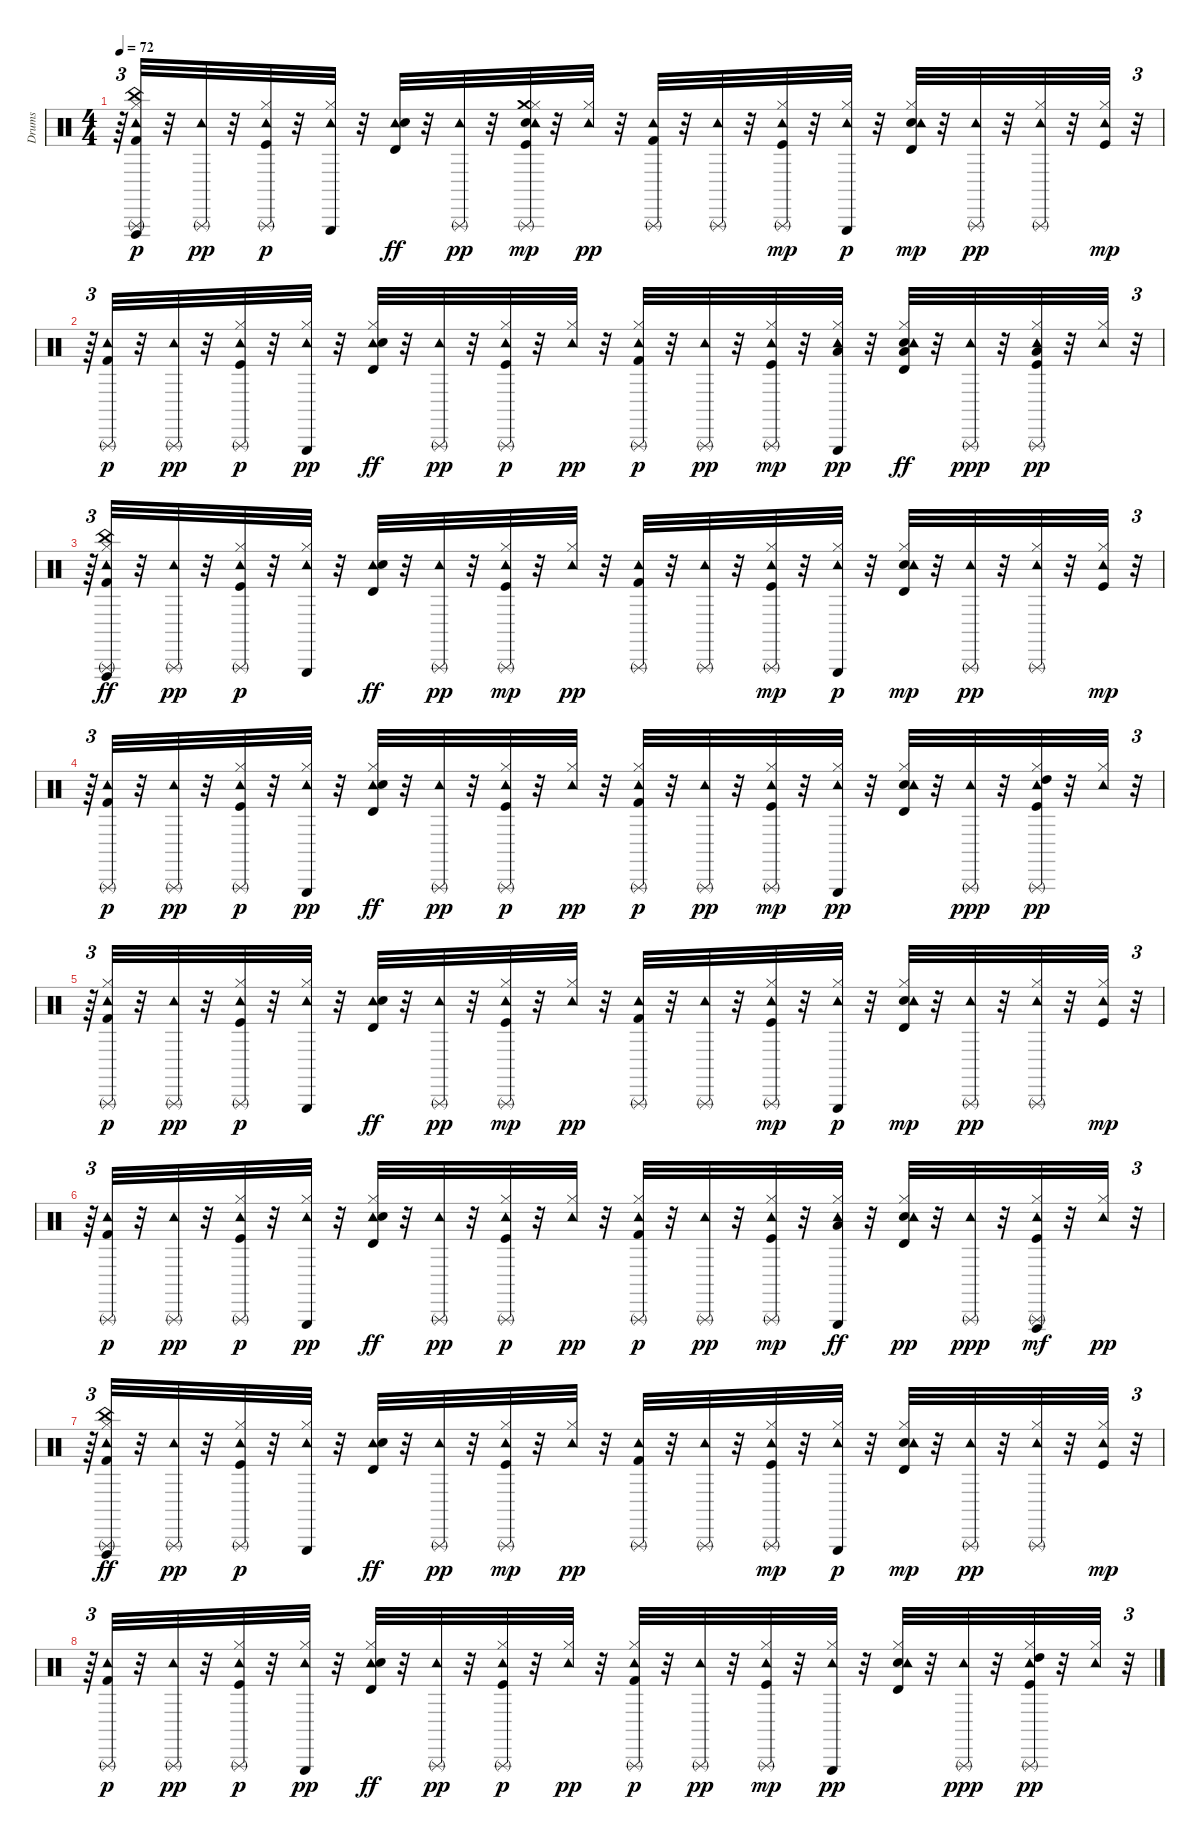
\track ("Drums" "Drums") {instrument percussion}
\staff {score}
\articulation defaults
\ts (4 4)
\tempo 72
\clef neutral
\ks c
r.64{tu (3 2) dy pp} ("Hi-Hat (closed)" "China (hit)" "Tambourine (hit)" "Vibraslap (hit)" "Triangle (rnute)" "Kick (hit) 2").32{dy p} r.32 ("Triangle (rnute)" "Tambourine (hit)").32{dy pp} r.32 ("Kick (hit)" "Hi-Hat (closed)" "Tambourine (hit)" "Triangle (rnute)").32{dy p} r.32 ("Hi-Hat (closed)" "Tambourine (hit)" "Triangle (hit)").32 r.32 ("Tambourine (hit)" "Electric Snare (hit)" "Timbale high (hit)").32{dy ff} r.32 ("Triangle (rnute)" "Tambourine (hit)").32{dy pp} r.32 ("Crash medium (hit)" "Kick (hit)" "Hi-Hat (closed)" "Snare (hit) 2" "Tambourine (hit)" "Triangle (rnute)").32{dy mp} r.32 ("Hi-Hat (closed)" "Tambourine (hit)").32{dy pp} r.32 ("Tambourine (hit)" "Kick (hit) 2" "Triangle (rnute)").32 r.32 ("Triangle (rnute)" "Tambourine (hit)").32 r.32 ("Hi-Hat (closed)" "Triangle (rnute)" "Tambourine (hit)" "Kick (hit)").32{dy mp} r.32 ("Hi-Hat (closed)" "Tambourine (hit)" "Triangle (hit)").32{dy p} r.32 ("Timbale high (hit)" "Electric Snare (hit)" "Tambourine (hit)" "Hi-Hat (closed)").32{dy mp} r.32 ("Tambourine (hit)" "Triangle (rnute)").32{dy pp} r.32 ("Tambourine (hit)" "Hi-Hat (closed)" "Triangle (rnute)").32 r.32 ("Kick (hit)" "Tambourine (hit)" "Hi-Hat (closed)").32{dy mp} r.32{tu (3 2)} |
r.64{tu (3 2)} ("Kick (hit) 2" "Tambourine (hit)" "Triangle (rnute)").32{dy p} r.32 ("Triangle (rnute)" "Tambourine (hit)").32{dy pp} r.32 ("Kick (hit)" "Hi-Hat (closed)" "Triangle (rnute)" "Tambourine (hit)").32{dy p} r.32 ("Hi-Hat (closed)" "Triangle (hit)" "Tambourine (hit)").32{dy pp} r.32 ("Hi-Hat (closed)" "Tambourine (hit)" "Electric Snare (hit)" "Timbale high (hit)").32{dy ff} r.32 ("Tambourine (hit)" "Triangle (rnute)").32{dy pp} r.32 ("Kick (hit)" "Hi-Hat (closed)" "Tambourine (hit)" "Triangle (rnute)").32{dy p} r.32 ("Hi-Hat (closed)" "Tambourine (hit)").32{dy pp} r.32 ("Hi-Hat (closed)" "Triangle (rnute)" "Tambourine (hit)" "Kick (hit) 2").32{dy p} r.32 ("Triangle (rnute)" "Tambourine (hit)").32{dy pp} r.32 ("Hi-Hat (closed)" "Triangle (rnute)" "Tambourine (hit)" "Kick (hit)").32{dy mp} r.32 ("Hi-Hat (closed)" "Low Tom (hit)" "Triangle (hit)" "Tambourine (hit)").32{dy pp} r.32 ("Electric Snare (hit)" "Timbale high (hit)" "Hi-Hat (closed)" "Tambourine (hit)" "Low Tom (hit)").32{dy ff} r.32 ("Triangle (rnute)" "Tambourine (hit)").32{dy ppp} r.32 ("Kick (hit)" "Hi-Hat (closed)" "Triangle (rnute)" "Low Floor Tom (hit)" "Tambourine (hit)").32{dy pp} r.32 ("Hi-Hat (closed)" "Tambourine (hit)").32 r.32{tu (3 2)} |
r.64{tu (3 2)} ("Hi-Hat (closed)" "Tambourine (hit)" "Vibraslap (hit)" "Triangle (rnute)" "Kick (hit) 2" "China (hit)").32{dy ff} r.32 ("Triangle (rnute)" "Tambourine (hit)").32{dy pp} r.32 ("Kick (hit)" "Hi-Hat (closed)" "Tambourine (hit)" "Triangle (rnute)").32{dy p} r.32 ("Hi-Hat (closed)" "Tambourine (hit)" "Triangle (hit)").32 r.32 ("Tambourine (hit)" "Electric Snare (hit)" "Timbale high (hit)").32{dy ff} r.32 ("Triangle (rnute)" "Tambourine (hit)").32{dy pp} r.32 ("Kick (hit)" "Hi-Hat (closed)" "Tambourine (hit)" "Triangle (rnute)").32{dy mp} r.32 ("Hi-Hat (closed)" "Tambourine (hit)").32{dy pp} r.32 ("Tambourine (hit)" "Kick (hit) 2" "Triangle (rnute)").32 r.32 ("Triangle (rnute)" "Tambourine (hit)").32 r.32 ("Hi-Hat (closed)" "Triangle (rnute)" "Tambourine (hit)" "Kick (hit)").32{dy mp} r.32 ("Hi-Hat (closed)" "Tambourine (hit)" "Triangle (hit)").32{dy p} r.32 ("Timbale high (hit)" "Electric Snare (hit)" "Tambourine (hit)" "Hi-Hat (closed)").32{dy mp} r.32 ("Tambourine (hit)" "Triangle (rnute)").32{dy pp} r.32 ("Tambourine (hit)" "Hi-Hat (closed)" "Triangle (rnute)").32 r.32 ("Kick (hit)" "Tambourine (hit)" "Hi-Hat (closed)").32{dy mp} r.32{tu (3 2)} |
r.64{tu (3 2)} ("Kick (hit) 2" "Tambourine (hit)" "Triangle (rnute)").32{dy p} r.32 ("Triangle (rnute)" "Tambourine (hit)").32{dy pp} r.32 ("Kick (hit)" "Hi-Hat (closed)" "Triangle (rnute)" "Tambourine (hit)").32{dy p} r.32 ("Hi-Hat (closed)" "Triangle (hit)" "Tambourine (hit)").32{dy pp} r.32 ("Hi-Hat (closed)" "Tambourine (hit)" "Electric Snare (hit)" "Timbale high (hit)").32{dy ff} r.32 ("Tambourine (hit)" "Triangle (rnute)").32{dy pp} r.32 ("Kick (hit)" "Hi-Hat (closed)" "Tambourine (hit)" "Triangle (rnute)").32{dy p} r.32 ("Hi-Hat (closed)" "Tambourine (hit)").32{dy pp} r.32 ("Hi-Hat (closed)" "Triangle (rnute)" "Tambourine (hit)" "Kick (hit) 2").32{dy p} r.32 ("Triangle (rnute)" "Tambourine (hit)").32{dy pp} r.32 ("Hi-Hat (closed)" "Triangle (rnute)" "Tambourine (hit)" "Kick (hit)").32{dy mp} r.32 ("Hi-Hat (closed)" "Triangle (hit)" "Tambourine (hit)").32{dy pp} r.32 ("Electric Snare (hit)" "Timbale high (hit)" "Hi-Hat (closed)" "Tambourine (hit)").32 r.32 ("Triangle (rnute)" "Tambourine (hit)").32{dy ppp} r.32 ("Kick (hit)" "Hi-Hat (closed)" "Triangle (rnute)" "High Tom (hit)" "Tambourine (hit)").32{dy pp} r.32 ("Hi-Hat (closed)" "Tambourine (hit)").32 r.32{tu (3 2)} |
r.64{tu (3 2)} ("Hi-Hat (closed)" "Tambourine (hit)" "Triangle (rnute)" "Kick (hit) 2").32{dy p} r.32 ("Triangle (rnute)" "Tambourine (hit)").32{dy pp} r.32 ("Kick (hit)" "Hi-Hat (closed)" "Tambourine (hit)" "Triangle (rnute)").32{dy p} r.32 ("Hi-Hat (closed)" "Tambourine (hit)" "Triangle (hit)").32 r.32 ("Tambourine (hit)" "Electric Snare (hit)" "Timbale high (hit)").32{dy ff} r.32 ("Triangle (rnute)" "Tambourine (hit)").32{dy pp} r.32 ("Kick (hit)" "Hi-Hat (closed)" "Tambourine (hit)" "Triangle (rnute)").32{dy mp} r.32 ("Hi-Hat (closed)" "Tambourine (hit)").32{dy pp} r.32 ("Tambourine (hit)" "Kick (hit) 2" "Triangle (rnute)").32 r.32 ("Triangle (rnute)" "Tambourine (hit)").32 r.32 ("Hi-Hat (closed)" "Triangle (rnute)" "Tambourine (hit)" "Kick (hit)").32{dy mp} r.32 ("Hi-Hat (closed)" "Tambourine (hit)" "Triangle (hit)").32{dy p} r.32 ("Timbale high (hit)" "Electric Snare (hit)" "Tambourine (hit)" "Hi-Hat (closed)").32{dy mp} r.32 ("Tambourine (hit)" "Triangle (rnute)").32{dy pp} r.32 ("Tambourine (hit)" "Hi-Hat (closed)" "Triangle (rnute)").32 r.32 ("Kick (hit)" "Tambourine (hit)" "Hi-Hat (closed)").32{dy mp} r.32{tu (3 2)} |
r.64{tu (3 2)} ("Kick (hit) 2" "Tambourine (hit)" "Triangle (rnute)").32{dy p} r.32 ("Triangle (rnute)" "Tambourine (hit)").32{dy pp} r.32 ("Kick (hit)" "Hi-Hat (closed)" "Triangle (rnute)" "Tambourine (hit)").32{dy p} r.32 ("Hi-Hat (closed)" "Triangle (hit)" "Tambourine (hit)").32{dy pp} r.32 ("Hi-Hat (closed)" "Tambourine (hit)" "Electric Snare (hit)" "Timbale high (hit)").32{dy ff} r.32 ("Tambourine (hit)" "Triangle (rnute)").32{dy pp} r.32 ("Kick (hit)" "Hi-Hat (closed)" "Tambourine (hit)" "Triangle (rnute)").32{dy p} r.32 ("Hi-Hat (closed)" "Tambourine (hit)").32{dy pp} r.32 ("Hi-Hat (closed)" "Triangle (rnute)" "Tambourine (hit)" "Kick (hit) 2").32{dy p} r.32 ("Triangle (rnute)" "Tambourine (hit)").32{dy pp} r.32 ("Hi-Hat (closed)" "Triangle (rnute)" "Tambourine (hit)" "Kick (hit)").32{dy mp} r.32 ("Hi-Hat (closed)" "Triangle (hit)" "Tambourine (hit)" "Low Tom (hit)").32{dy ff} r.32 ("Electric Snare (hit)" "Timbale high (hit)" "Hi-Hat (closed)" "Tambourine (hit)").32{dy pp} r.32 ("Triangle (rnute)" "Tambourine (hit)").32{dy ppp} r.32 ("Kick (hit)" "Hi-Hat (closed)" "Triangle (rnute)" "Tambourine (hit)" "Vibraslap (hit)").32{dy mf} r.32 ("Hi-Hat (closed)" "Tambourine (hit)").32{dy pp} r.32{tu (3 2)} |
r.64{tu (3 2)} ("Hi-Hat (closed)" "Tambourine (hit)" "Vibraslap (hit)" "Triangle (rnute)" "Kick (hit) 2" "China (hit)").32{dy ff} r.32 ("Triangle (rnute)" "Tambourine (hit)").32{dy pp} r.32 ("Kick (hit)" "Hi-Hat (closed)" "Tambourine (hit)" "Triangle (rnute)").32{dy p} r.32 ("Hi-Hat (closed)" "Tambourine (hit)" "Triangle (hit)").32 r.32 ("Tambourine (hit)" "Electric Snare (hit)" "Timbale high (hit)").32{dy ff} r.32 ("Triangle (rnute)" "Tambourine (hit)").32{dy pp} r.32 ("Kick (hit)" "Hi-Hat (closed)" "Tambourine (hit)" "Triangle (rnute)").32{dy mp} r.32 ("Hi-Hat (closed)" "Tambourine (hit)").32{dy pp} r.32 ("Tambourine (hit)" "Kick (hit) 2" "Triangle (rnute)").32 r.32 ("Triangle (rnute)" "Tambourine (hit)").32 r.32 ("Hi-Hat (closed)" "Triangle (rnute)" "Tambourine (hit)" "Kick (hit)").32{dy mp} r.32 ("Hi-Hat (closed)" "Tambourine (hit)" "Triangle (hit)").32{dy p} r.32 ("Timbale high (hit)" "Electric Snare (hit)" "Tambourine (hit)" "Hi-Hat (closed)").32{dy mp} r.32 ("Tambourine (hit)" "Triangle (rnute)").32{dy pp} r.32 ("Tambourine (hit)" "Hi-Hat (closed)" "Triangle (rnute)").32 r.32 ("Kick (hit)" "Tambourine (hit)" "Hi-Hat (closed)").32{dy mp} r.32{tu (3 2)} |
r.64{tu (3 2)} ("Kick (hit) 2" "Tambourine (hit)" "Triangle (rnute)").32{dy p} r.32 ("Triangle (rnute)" "Tambourine (hit)").32{dy pp} r.32 ("Kick (hit)" "Hi-Hat (closed)" "Triangle (rnute)" "Tambourine (hit)").32{dy p} r.32 ("Hi-Hat (closed)" "Triangle (hit)" "Tambourine (hit)").32{dy pp} r.32 ("Hi-Hat (closed)" "Tambourine (hit)" "Electric Snare (hit)" "Timbale high (hit)").32{dy ff} r.32 ("Tambourine (hit)" "Triangle (rnute)").32{dy pp} r.32 ("Kick (hit)" "Hi-Hat (closed)" "Tambourine (hit)" "Triangle (rnute)").32{dy p} r.32 ("Hi-Hat (closed)" "Tambourine (hit)").32{dy pp} r.32 ("Hi-Hat (closed)" "Triangle (rnute)" "Tambourine (hit)" "Kick (hit) 2").32{dy p} r.32 ("Triangle (rnute)" "Tambourine (hit)").32{dy pp} r.32 ("Hi-Hat (closed)" "Triangle (rnute)" "Tambourine (hit)" "Kick (hit)").32{dy mp} r.32 ("Hi-Hat (closed)" "Triangle (hit)" "Tambourine (hit)").32{dy pp} r.32 ("Electric Snare (hit)" "Timbale high (hit)" "Hi-Hat (closed)" "Tambourine (hit)").32 r.32 ("Triangle (rnute)" "Tambourine (hit)").32{dy ppp} r.32 ("Kick (hit)" "Hi-Hat (closed)" "Triangle (rnute)" "High Tom (hit)" "Tambourine (hit)").32{dy pp} r.32 ("Hi-Hat (closed)" "Tambourine (hit)").32 r.32{tu (3 2)}
